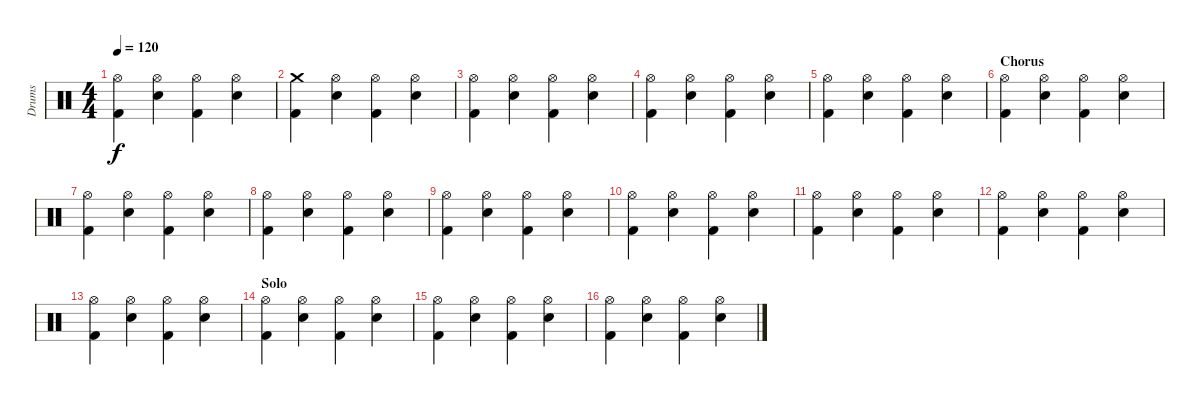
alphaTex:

\track ("Drums" "Drums") {instrument percussion}
\staff {score}
\articulation defaults
\ts (4 4)
\tempo 120
\clef neutral
\ks c
("Hi-Hat (open)" "Kick (hit) 2").4{dy f} ("Hi-Hat (open)" "Electric Snare (hit)").4 ("Hi-Hat (open)" "Kick (hit) 2").4 ("Hi-Hat (open)" "Electric Snare (hit)").4 |
("Crash medium (hit)" "Kick (hit) 2").4 ("Hi-Hat (open)" "Electric Snare (hit)").4 ("Hi-Hat (open)" "Kick (hit) 2").4 ("Hi-Hat (open)" "Electric Snare (hit)").4 |
("Hi-Hat (open)" "Kick (hit) 2").4 ("Hi-Hat (open)" "Electric Snare (hit)").4 ("Hi-Hat (open)" "Kick (hit) 2").4 ("Hi-Hat (open)" "Electric Snare (hit)").4 |
("Hi-Hat (open)" "Kick (hit) 2").4 ("Hi-Hat (open)" "Electric Snare (hit)").4 ("Hi-Hat (open)" "Kick (hit) 2").4 ("Hi-Hat (open)" "Electric Snare (hit)").4 |
("Hi-Hat (open)" "Kick (hit) 2").4 ("Hi-Hat (open)" "Electric Snare (hit)").4 ("Hi-Hat (open)" "Kick (hit) 2").4 ("Hi-Hat (open)" "Electric Snare (hit)").4 |
\section ("" "Chorus")
("Hi-Hat (open)" "Kick (hit) 2").4 ("Hi-Hat (open)" "Electric Snare (hit)").4 ("Hi-Hat (open)" "Kick (hit) 2").4 ("Hi-Hat (open)" "Electric Snare (hit)").4 |
("Hi-Hat (open)" "Kick (hit) 2").4 ("Hi-Hat (open)" "Electric Snare (hit)").4 ("Hi-Hat (open)" "Kick (hit) 2").4 ("Hi-Hat (open)" "Electric Snare (hit)").4 |
("Hi-Hat (open)" "Kick (hit) 2").4 ("Hi-Hat (open)" "Electric Snare (hit)").4 ("Hi-Hat (open)" "Kick (hit) 2").4 ("Hi-Hat (open)" "Electric Snare (hit)").4 |
("Hi-Hat (open)" "Kick (hit) 2").4 ("Hi-Hat (open)" "Electric Snare (hit)").4 ("Hi-Hat (open)" "Kick (hit) 2").4 ("Hi-Hat (open)" "Electric Snare (hit)").4 |
("Hi-Hat (open)" "Kick (hit) 2").4 ("Hi-Hat (open)" "Electric Snare (hit)").4 ("Hi-Hat (open)" "Kick (hit) 2").4 ("Hi-Hat (open)" "Electric Snare (hit)").4 |
("Hi-Hat (open)" "Kick (hit) 2").4 ("Hi-Hat (open)" "Electric Snare (hit)").4 ("Hi-Hat (open)" "Kick (hit) 2").4 ("Hi-Hat (open)" "Electric Snare (hit)").4 |
("Hi-Hat (open)" "Kick (hit) 2").4 ("Hi-Hat (open)" "Electric Snare (hit)").4 ("Hi-Hat (open)" "Kick (hit) 2").4 ("Hi-Hat (open)" "Electric Snare (hit)").4 |
("Hi-Hat (open)" "Kick (hit) 2").4 ("Hi-Hat (open)" "Electric Snare (hit)").4 ("Hi-Hat (open)" "Kick (hit) 2").4 ("Hi-Hat (open)" "Electric Snare (hit)").4 |
\section ("" "Solo")
("Hi-Hat (open)" "Kick (hit) 2").4 ("Hi-Hat (open)" "Electric Snare (hit)").4 ("Hi-Hat (open)" "Kick (hit) 2").4 ("Hi-Hat (open)" "Electric Snare (hit)").4 |
("Hi-Hat (open)" "Kick (hit) 2").4 ("Hi-Hat (open)" "Electric Snare (hit)").4 ("Hi-Hat (open)" "Kick (hit) 2").4 ("Hi-Hat (open)" "Electric Snare (hit)").4 |
("Hi-Hat (open)" "Kick (hit) 2").4 ("Hi-Hat (open)" "Electric Snare (hit)").4 ("Hi-Hat (open)" "Kick (hit) 2").4 ("Hi-Hat (open)" "Electric Snare (hit)").4
